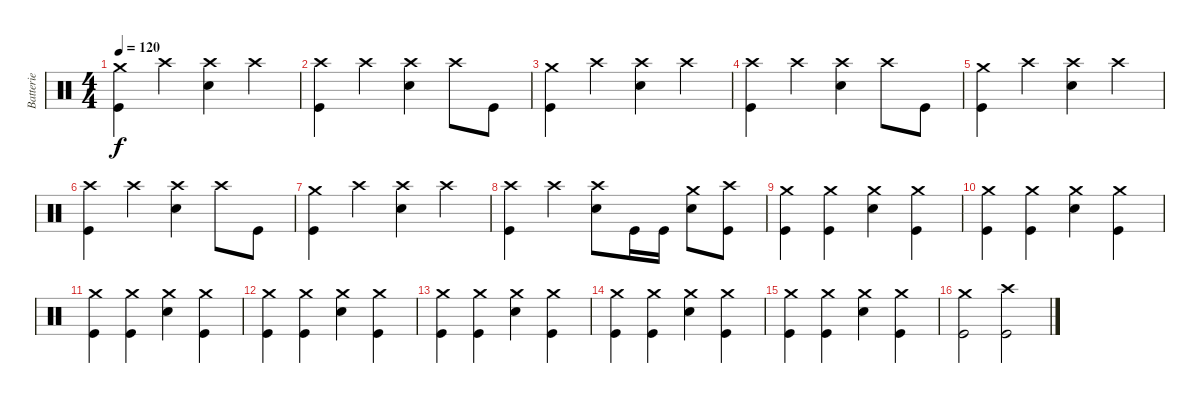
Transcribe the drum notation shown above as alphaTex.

\track ("Batterie" "Batterie") {instrument percussion}
\staff {score}
\articulation defaults
\ts (4 4)
\tempo 120
\clef neutral
\ks c
("Crash medium (hit)" "Kick (hit)").4{dy f} "Crash high (hit)".4 ("Crash high (hit)" "Electric Snare (hit)").4 "Crash high (hit)".4 |
("Crash high (hit)" "Kick (hit)").4 "Crash high (hit)".4 ("Crash high (hit)" "Electric Snare (hit)").4 "Crash high (hit)".8 "Kick (hit)".8 |
("Crash medium (hit)" "Kick (hit)").4 "Crash high (hit)".4 ("Crash high (hit)" "Electric Snare (hit)").4 "Crash high (hit)".4 |
("Crash high (hit)" "Kick (hit)").4 "Crash high (hit)".4 ("Crash high (hit)" "Electric Snare (hit)").4 "Crash high (hit)".8 "Kick (hit)".8 |
("Crash medium (hit)" "Kick (hit)").4 "Crash high (hit)".4 ("Crash high (hit)" "Electric Snare (hit)").4 "Crash high (hit)".4 |
("Crash high (hit)" "Kick (hit)").4 "Crash high (hit)".4 ("Crash high (hit)" "Electric Snare (hit)").4 "Crash high (hit)".8 "Kick (hit)".8 |
("Crash medium (hit)" "Kick (hit)").4 "Crash high (hit)".4 ("Crash high (hit)" "Electric Snare (hit)").4 "Crash high (hit)".4 |
("Crash high (hit)" "Kick (hit)").4 "Crash high (hit)".4 ("Crash high (hit)" "Electric Snare (hit)").8 "Kick (hit)".16 "Kick (hit)".16 ("Crash medium (hit)" "Electric Snare (hit)").8 ("Crash high (hit)" "Kick (hit)").8 |
("Crash medium (hit)" "Kick (hit)").4 ("Crash medium (hit)" "Kick (hit)").4 ("Crash medium (hit)" "Electric Snare (hit)").4 ("Crash medium (hit)" "Kick (hit)").4 |
("Crash medium (hit)" "Kick (hit)").4 ("Crash medium (hit)" "Kick (hit)").4 ("Crash medium (hit)" "Electric Snare (hit)").4 ("Crash medium (hit)" "Kick (hit)").4 |
("Crash medium (hit)" "Kick (hit)").4 ("Crash medium (hit)" "Kick (hit)").4 ("Crash medium (hit)" "Electric Snare (hit)").4 ("Crash medium (hit)" "Kick (hit)").4 |
("Crash medium (hit)" "Kick (hit)").4 ("Crash medium (hit)" "Kick (hit)").4 ("Crash medium (hit)" "Electric Snare (hit)").4 ("Crash medium (hit)" "Kick (hit)").4 |
("Crash medium (hit)" "Kick (hit)").4 ("Crash medium (hit)" "Kick (hit)").4 ("Crash medium (hit)" "Electric Snare (hit)").4 ("Crash medium (hit)" "Kick (hit)").4 |
("Crash medium (hit)" "Kick (hit)").4 ("Crash medium (hit)" "Kick (hit)").4 ("Crash medium (hit)" "Electric Snare (hit)").4 ("Crash medium (hit)" "Kick (hit)").4 |
("Crash medium (hit)" "Kick (hit)").4 ("Crash medium (hit)" "Kick (hit)").4 ("Crash medium (hit)" "Electric Snare (hit)").4 ("Crash medium (hit)" "Kick (hit)").4 |
("Crash medium (hit)" "Kick (hit)").2 ("Crash high (hit)" "Kick (hit)").2
